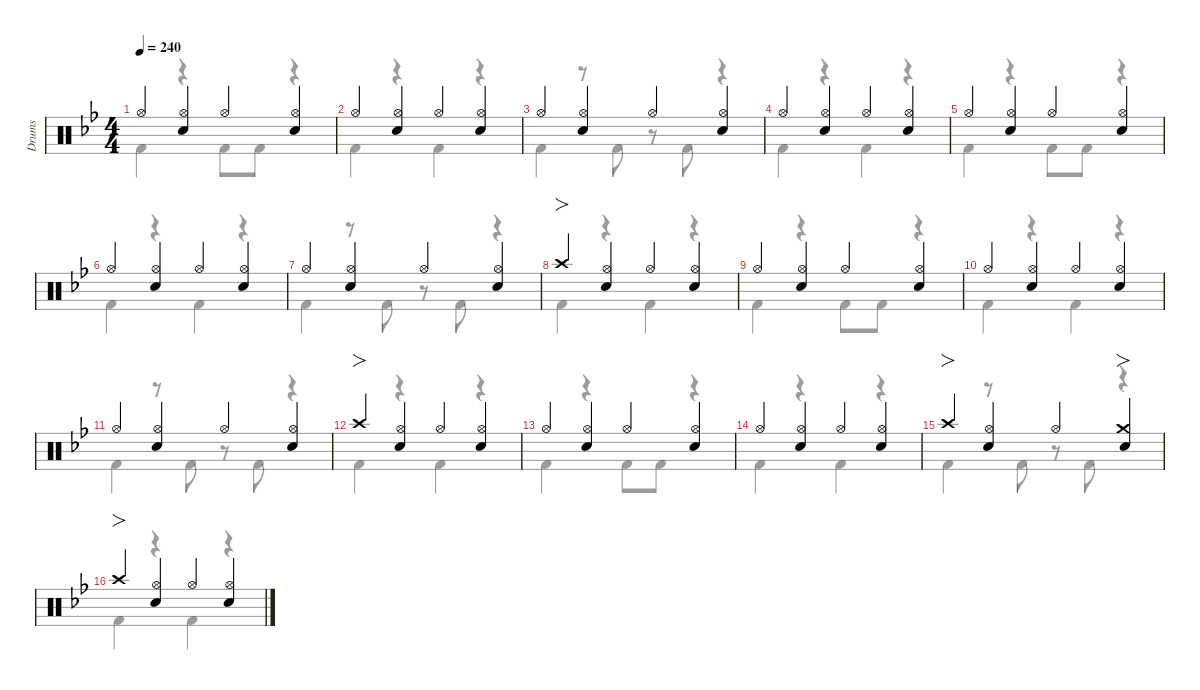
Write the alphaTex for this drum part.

\defaultSystemsLayout 4
\hideDynamics
\bracketExtendMode nobrackets
\otherSystemsTrackNameOrientation horizontal
\track ("Drums" "Drums") {defaultSystemsLayout 4 instrument percussion}
\staff {score}
\articulation defaults
\voice
\ts (4 4)
\tempo 240
\clef neutral
\scale
0.976526
\ks bb "Hi-Hat (open)"{acc forcenatural}.4{dy f beam Up}
("Hi-Hat (open)"{acc forcenatural} "Snare (hit) 2"{acc forcenatural}).4{beam Up} "Hi-Hat (open)"{acc forcenatural}.4{beam Up} ("Hi-Hat (open)"{acc forcenatural} "Snare (hit) 2"{acc forcenatural}).4{beam Up} |
\scale
0.976526 "Hi-Hat (open)"{acc forcenatural}.4{beam Up} ("Hi-Hat (open)"{acc forcenatural} "Snare (hit) 2"{acc forcenatural}).4{beam Up} "Hi-Hat (open)"{acc forcenatural}.4{beam Up} ("Hi-Hat (open)"{acc forcenatural} "Snare (hit) 2"{acc forcenatural}).4{beam Up} |
\scale
0.976526 "Hi-Hat (open)"{acc forcenatural}.4{beam Up} ("Hi-Hat (open)"{acc forcenatural} "Snare (hit) 2"{acc forcenatural}).4{beam Up} "Hi-Hat (open)"{acc forcenatural}.4{beam Up} ("Hi-Hat (open)"{acc forcenatural} "Snare (hit) 2"{acc forcenatural}).4{beam Up} |
\scale
1.07042 "Hi-Hat (open)"{acc forcenatural}.4{beam Up} ("Hi-Hat (open)"{acc forcenatural} "Snare (hit) 2"{acc forcenatural}).4{beam Up} "Hi-Hat (open)"{acc forcenatural}.4{beam Up} ("Hi-Hat (open)"{acc forcenatural} "Snare (hit) 2"{acc forcenatural}).4{beam Up} |
\scale
0.976526 "Hi-Hat (open)"{acc forcenatural}.4{beam Up} ("Hi-Hat (open)"{acc forcenatural} "Snare (hit) 2"{acc forcenatural}).4{beam Up} "Hi-Hat (open)"{acc forcenatural}.4{beam Up} ("Hi-Hat (open)"{acc forcenatural} "Snare (hit) 2"{acc forcenatural}).4{beam Up} |
\scale
0.976526 "Hi-Hat (open)"{acc forcenatural}.4{beam Up} ("Hi-Hat (open)"{acc forcenatural} "Snare (hit) 2"{acc forcenatural}).4{beam Up} "Hi-Hat (open)"{acc forcenatural}.4{beam Up} ("Hi-Hat (open)"{acc forcenatural} "Snare (hit) 2"{acc forcenatural}).4{beam Up} |
\scale
0.976526 "Hi-Hat (open)"{acc forcenatural}.4{beam Up} ("Hi-Hat (open)"{acc forcenatural} "Snare (hit) 2"{acc forcenatural}).4{beam Up} "Hi-Hat (open)"{acc forcenatural}.4{beam Up} ("Hi-Hat (open)"{acc forcenatural} "Snare (hit) 2"{acc forcenatural}).4{beam Up} |
\scale
1.07042 "Crash high (hit)"{acc forcenatural}.4{fo beam Up} ("Hi-Hat (open)"{acc forcenatural} "Snare (hit) 2"{acc forcenatural}).4{beam Up} "Hi-Hat (open)"{acc forcenatural}.4{beam Up} ("Hi-Hat (open)"{acc forcenatural} "Snare (hit) 2"{acc forcenatural}).4{beam Up} |
\scale
0.976526 "Hi-Hat (open)"{acc forcenatural}.4{beam Up} ("Hi-Hat (open)"{acc forcenatural} "Snare (hit) 2"{acc forcenatural}).4{beam Up} "Hi-Hat (open)"{acc forcenatural}.4{beam Up} ("Hi-Hat (open)"{acc forcenatural} "Snare (hit) 2"{acc forcenatural}).4{beam Up} |
\scale
0.976526 "Hi-Hat (open)"{acc forcenatural}.4{beam Up} ("Hi-Hat (open)"{acc forcenatural} "Snare (hit) 2"{acc forcenatural}).4{beam Up} "Hi-Hat (open)"{acc forcenatural}.4{beam Up} ("Hi-Hat (open)"{acc forcenatural} "Snare (hit) 2"{acc forcenatural}).4{beam Up} |
\scale
0.976526 "Hi-Hat (open)"{acc forcenatural}.4{beam Up} ("Hi-Hat (open)"{acc forcenatural} "Snare (hit) 2"{acc forcenatural}).4{beam Up} "Hi-Hat (open)"{acc forcenatural}.4{beam Up} ("Hi-Hat (open)"{acc forcenatural} "Snare (hit) 2"{acc forcenatural}).4{beam Up} |
\scale
1.07042 "Crash high (hit)"{acc forcenatural}.4{fo beam Up} ("Hi-Hat (open)"{acc forcenatural} "Snare (hit) 2"{acc forcenatural}).4{beam Up} "Hi-Hat (open)"{acc forcenatural}.4{beam Up} ("Hi-Hat (open)"{acc forcenatural} "Snare (hit) 2"{acc forcenatural}).4{beam Up} |
\scale
0.976526 "Hi-Hat (open)"{acc forcenatural}.4{beam Up} ("Hi-Hat (open)"{acc forcenatural} "Snare (hit) 2"{acc forcenatural}).4{beam Up} "Hi-Hat (open)"{acc forcenatural}.4{beam Up} ("Hi-Hat (open)"{acc forcenatural} "Snare (hit) 2"{acc forcenatural}).4{beam Up} |
\scale
0.976526 "Hi-Hat (open)"{acc forcenatural}.4{beam Up} ("Hi-Hat (open)"{acc forcenatural} "Snare (hit) 2"{acc forcenatural}).4{beam Up} "Hi-Hat (open)"{acc forcenatural}.4{beam Up} ("Hi-Hat (open)"{acc forcenatural} "Snare (hit) 2"{acc forcenatural}).4{beam Up} |
\scale
0.976526 "Crash high (hit)"{acc forcenatural}.4{fo beam Up} ("Hi-Hat (open)"{acc forcenatural} "Snare (hit) 2"{acc forcenatural}).4{beam Up} "Hi-Hat (open)"{acc forcenatural}.4{beam Up} ("Crash medium (hit)"{acc forcenatural} "Snare (hit) 2"{acc forcenatural}).4{fo beam Up} |
\scale
1.07042 "Crash high (hit)"{acc forcenatural}.4{fo beam Up} ("Hi-Hat (open)"{acc forcenatural} "Snare (hit) 2"{acc forcenatural}).4{beam Up} "Hi-Hat (open)"{acc forcenatural}.4{beam Up} ("Hi-Hat (open)"{acc forcenatural} "Snare (hit) 2"{acc forcenatural}).4{beam Up}
\voice
\clef neutral
\ottava regular
\simile none
\scale
0.976526
\ks bb "Kick (hit) 2"{acc forcenatural}.4{dy f beam Down}
r.4{beam Down} "Kick (hit) 2"{acc forcenatural}.8{beam Down} "Kick (hit) 2"{acc forcenatural}.8{beam Down} r.4{beam Down} |
\scale
0.976526 "Kick (hit) 2"{acc forcenatural}.4{beam Down} r.4{beam Down} "Kick (hit) 2"{acc forcenatural}.4{beam Down} r.4{beam Down} |
\scale
0.976526 "Kick (hit) 2"{acc forcenatural}.4{beam Down} r.8{beam Down} "Kick (hit) 2"{acc forcenatural}.8{beam Down} r.8{beam Down} "Kick (hit) 2"{acc forcenatural}.8{beam Down} r.4{beam Down} |
\scale
1.07042 "Kick (hit) 2"{acc forcenatural}.4{beam Down} r.4{beam Down} "Kick (hit) 2"{acc forcenatural}.4{beam Down} r.4{beam Down} |
\scale
0.976526 "Kick (hit) 2"{acc forcenatural}.4{beam Down} r.4{beam Down} "Kick (hit) 2"{acc forcenatural}.8{beam Down} "Kick (hit) 2"{acc forcenatural}.8{beam Down} r.4{beam Down} |
\scale
0.976526 "Kick (hit) 2"{acc forcenatural}.4{beam Down} r.4{beam Down} "Kick (hit) 2"{acc forcenatural}.4{beam Down} r.4{beam Down} |
\scale
0.976526 "Kick (hit) 2"{acc forcenatural}.4{beam Down} r.8{beam Down} "Kick (hit) 2"{acc forcenatural}.8{beam Down} r.8{beam Down} "Kick (hit) 2"{acc forcenatural}.8{beam Down} r.4{beam Down} |
\scale
1.07042 "Kick (hit) 2"{acc forcenatural}.4{beam Down} r.4{beam Down} "Kick (hit) 2"{acc forcenatural}.4{beam Down} r.4{beam Down} |
\scale
0.976526 "Kick (hit) 2"{acc forcenatural}.4{beam Down} r.4{beam Down} "Kick (hit) 2"{acc forcenatural}.8{beam Down} "Kick (hit) 2"{acc forcenatural}.8{beam Down} r.4{beam Down} |
\scale
0.976526 "Kick (hit) 2"{acc forcenatural}.4{beam Down} r.4{beam Down} "Kick (hit) 2"{acc forcenatural}.4{beam Down} r.4{beam Down} |
\scale
0.976526 "Kick (hit) 2"{acc forcenatural}.4{beam Down} r.8{beam Down} "Kick (hit) 2"{acc forcenatural}.8{beam Down} r.8{beam Down} "Kick (hit) 2"{acc forcenatural}.8{beam Down} r.4{beam Down} |
\scale
1.07042 "Kick (hit) 2"{acc forcenatural}.4{beam Down} r.4{beam Down} "Kick (hit) 2"{acc forcenatural}.4{beam Down} r.4{beam Down} |
\scale
0.976526 "Kick (hit) 2"{acc forcenatural}.4{beam Down} r.4{beam Down} "Kick (hit) 2"{acc forcenatural}.8{beam Down} "Kick (hit) 2"{acc forcenatural}.8{beam Down} r.4{beam Down} |
\scale
0.976526 "Kick (hit) 2"{acc forcenatural}.4{beam Down} r.4{beam Down} "Kick (hit) 2"{acc forcenatural}.4{beam Down} r.4{beam Down} |
\scale
0.976526 "Kick (hit) 2"{acc forcenatural}.4{beam Down} r.8{beam Down} "Kick (hit) 2"{acc forcenatural}.8{beam Down} r.8{beam Down} "Kick (hit) 2"{acc forcenatural}.8{beam Down} r.4{beam Down} |
\scale
1.07042 "Kick (hit) 2"{acc forcenatural}.4{beam Down} r.4{beam Down} "Kick (hit) 2"{acc forcenatural}.4{beam Down} r.4{beam Down}
